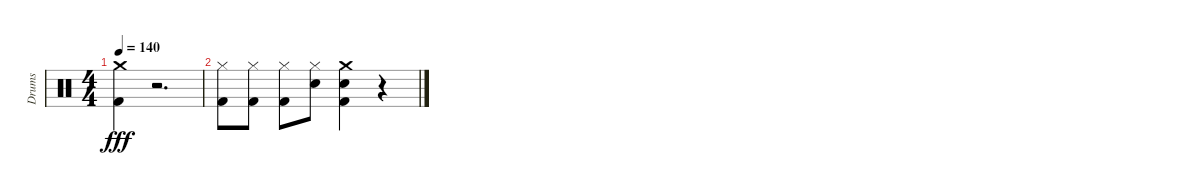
\track ("Drums" "Drums") {instrument percussion}
\staff {score}
\articulation defaults
\ts (4 4)
\tempo 140
\clef neutral
\ks c
("Crash medium (hit)" "Kick (hit) 2").4{dy fff} r.2{d} |
("Hi-Hat (closed)" "Kick (hit) 2").8 ("Hi-Hat (closed)" "Kick (hit) 2").8 ("Hi-Hat (closed)" "Kick (hit) 2").8 ("Snare (hit) 2" "Hi-Hat (closed)").8 ("Kick (hit) 2" "Snare (hit) 2" "Crash medium (hit)").4 r.4
